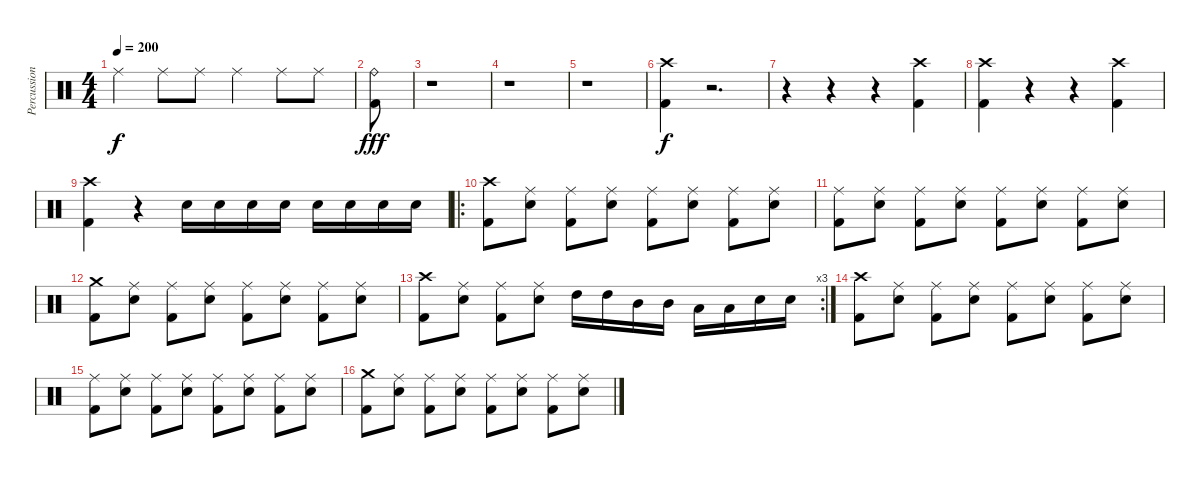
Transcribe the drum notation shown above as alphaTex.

\track ("Percussions" "Percussion") {instrument percussion}
\staff {score}
\articulation defaults
\ts (4 4)
\tempo 200
\clef neutral
\ks c "Ride (middle)".4{dy f} "Ride (middle)".8 "Ride (middle)".8 "Ride (middle)".4 "Ride (middle)".8 "Ride (middle)".8
|
("Ride (bell)" "Kick (hit) 2").8{dy fff} |
r.1 |
r.1 |
r.1 |
("Crash high (hit)" "Kick (hit) 2").4{dy f} r.2{d} |
r.4 r.4 r.4 ("Crash high (hit)" "Kick (hit) 2").4 |
("Crash high (hit)" "Kick (hit) 2").4 r.4 r.4 ("Crash high (hit)" "Kick (hit) 2").4 |
("Crash high (hit)" "Kick (hit) 2").4 r.4 "Snare (hit) 2".16 "Snare (hit) 2".16 "Snare (hit) 2".16 "Snare (hit) 2".16 "Snare (hit) 2".16 "Snare (hit) 2".16 "Snare (hit) 2".16 "Snare (hit) 2".16 |
\ro
("Crash high (hit)" "Kick (hit) 2").8 ("Ride (middle)" "Snare (hit) 2").8 ("Ride (middle)" "Kick (hit) 2").8 ("Ride (middle)" "Snare (hit) 2").8 ("Ride (middle)" "Kick (hit) 2").8 ("Ride (middle)" "Snare (hit) 2").8 ("Ride (middle)" "Kick (hit) 2").8 ("Ride (middle)" "Snare (hit) 2").8 |
("Ride (middle)" "Kick (hit) 2").8 ("Ride (middle)" "Snare (hit) 2").8 ("Ride (middle)" "Kick (hit) 2").8 ("Ride (middle)" "Snare (hit) 2").8 ("Ride (middle)" "Kick (hit) 2").8 ("Ride (middle)" "Snare (hit) 2").8 ("Ride (middle)" "Kick (hit) 2").8 ("Ride (middle)" "Snare (hit) 2").8 |
("Crash medium (hit)" "Kick (hit) 2").8 ("Ride (middle)" "Snare (hit) 2").8 ("Ride (middle)" "Kick (hit) 2").8 ("Ride (middle)" "Snare (hit) 2").8 ("Ride (middle)" "Kick (hit) 2").8 ("Ride (middle)" "Snare (hit) 2").8 ("Ride (middle)" "Kick (hit) 2").8 ("Ride (middle)" "Snare (hit) 2").8 |
\rc 3
("Crash high (hit)" "Kick (hit) 2").8 ("Ride (middle)" "Snare (hit) 2").8 ("Ride (middle)" "Kick (hit) 2").8 ("Ride (middle)" "Snare (hit) 2").8 "High Tom (hit)".16 "High Tom (hit)".16 "Mid Tom (hit)".16 "Mid Tom (hit)".16 "Low Tom (hit)".16 "Low Tom (hit)".16 "Snare (hit) 2".16 "Snare (hit) 2".16 |
("Crash high (hit)" "Kick (hit) 2").8 ("Ride (middle)" "Snare (hit) 2").8 ("Ride (middle)" "Kick (hit) 2").8 ("Ride (middle)" "Snare (hit) 2").8 ("Ride (middle)" "Kick (hit) 2").8 ("Ride (middle)" "Snare (hit) 2").8 ("Ride (middle)" "Kick (hit) 2").8 ("Ride (middle)" "Snare (hit) 2").8 |
("Ride (middle)" "Kick (hit) 2").8 ("Ride (middle)" "Snare (hit) 2").8 ("Ride (middle)" "Kick (hit) 2").8 ("Ride (middle)" "Snare (hit) 2").8 ("Ride (middle)" "Kick (hit) 2").8 ("Ride (middle)" "Snare (hit) 2").8 ("Ride (middle)" "Kick (hit) 2").8 ("Ride (middle)" "Snare (hit) 2").8 |
("Crash medium (hit)" "Kick (hit) 2").8 ("Ride (middle)" "Snare (hit) 2").8 ("Ride (middle)" "Kick (hit) 2").8 ("Ride (middle)" "Snare (hit) 2").8 ("Ride (middle)" "Kick (hit) 2").8 ("Ride (middle)" "Snare (hit) 2").8 ("Ride (middle)" "Kick (hit) 2").8 ("Ride (middle)" "Snare (hit) 2").8
